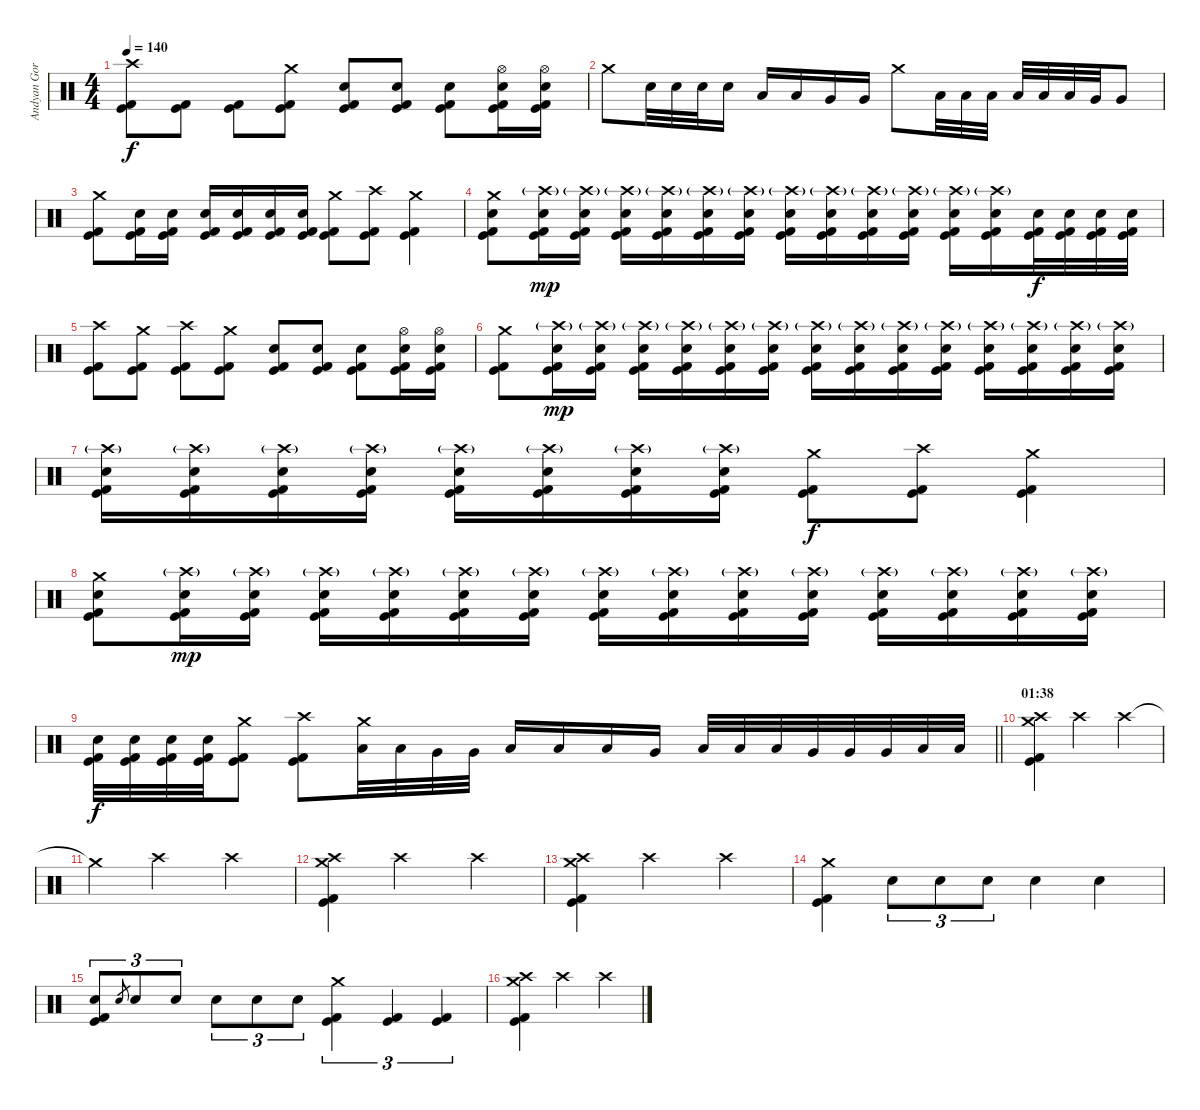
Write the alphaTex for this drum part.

\track ("Andyan Gorust" "Andyan Gor") {instrument percussion}
\staff {score}
\articulation defaults
\ts (4 4)
\tempo 140
\clef neutral
\ks c
("Crash high (hit)" "Kick (hit)" "Kick (hit) 2").8{dy f} ("Kick (hit)" "Kick (hit) 2").8 ("Kick (hit)" "Kick (hit) 2").8 ("Crash medium (hit)" "Kick (hit)" "Kick (hit) 2").8 ("Electric Snare (hit)" "Kick (hit)" "Kick (hit) 2").8 ("Electric Snare (hit)" "Kick (hit)" "Kick (hit) 2").8 ("Electric Snare (hit)" "Kick (hit)" "Kick (hit) 2").8 ("Hi-Hat (open)" "Electric Snare (hit)" "Kick (hit)" "Kick (hit) 2").16 ("Hi-Hat (open)" "Electric Snare (hit)" "Kick (hit)" "Kick (hit) 2").16 |
"Crash medium (hit)".8 "Electric Snare (hit)".32 "Electric Snare (hit)".32 "Electric Snare (hit)".32 "Electric Snare (hit)".16 "Low Tom (hit)".16 "Low Tom (hit)".16 "Very Low Tom (hit)".16 "Very Low Tom (hit)".16 "Crash medium (hit)".8 "Low Tom (hit)".32 "Low Tom (hit)".32 "Low Tom (hit)".32 "Low Floor Tom (hit)".32 "Low Floor Tom (hit)".32 "Low Floor Tom (hit)".32 "Very Low Tom (hit)".32 "Very Low Tom (hit)".8 |
("Crash medium (hit)" "Kick (hit)" "Kick (hit) 2").8 ("Electric Snare (hit)" "Kick (hit)" "Kick (hit) 2").16 ("Electric Snare (hit)" "Kick (hit)" "Kick (hit) 2").16 ("Electric Snare (hit)" "Kick (hit)" "Kick (hit) 2").16 ("Electric Snare (hit)" "Kick (hit)" "Kick (hit) 2").16 ("Electric Snare (hit)" "Kick (hit)" "Kick (hit) 2").16 ("Electric Snare (hit)" "Kick (hit)" "Kick (hit) 2").16 ("Crash medium (hit)" "Kick (hit)" "Kick (hit) 2").8 ("Crash high (hit)" "Kick (hit)" "Kick (hit) 2").8 ("Crash medium (hit)" "Kick (hit)" "Kick (hit) 2").4 |
("Crash medium (hit)" "Electric Snare (hit)" "Kick (hit)" "Kick (hit) 2").8 ("Crash high (hit)"{g} "Electric Snare (hit)" "Kick (hit)" "Kick (hit) 2").16{dy mp} ("Crash high (hit)"{g} "Electric Snare (hit)" "Kick (hit)" "Kick (hit) 2").16 ("Crash high (hit)"{g} "Electric Snare (hit)" "Kick (hit)" "Kick (hit) 2").16 ("Crash high (hit)"{g} "Electric Snare (hit)" "Kick (hit)" "Kick (hit) 2").16 ("Crash high (hit)"{g} "Electric Snare (hit)" "Kick (hit)" "Kick (hit) 2").16 ("Crash high (hit)"{g} "Electric Snare (hit)" "Kick (hit)" "Kick (hit) 2").16 ("Crash high (hit)"{g} "Electric Snare (hit)" "Kick (hit)" "Kick (hit) 2").16 ("Crash high (hit)"{g} "Electric Snare (hit)" "Kick (hit)" "Kick (hit) 2").16 ("Crash high (hit)"{g} "Electric Snare (hit)" "Kick (hit)" "Kick (hit) 2").16 ("Crash high (hit)"{g} "Electric Snare (hit)" "Kick (hit)" "Kick (hit) 2").16 ("Crash high (hit)"{g} "Electric Snare (hit)" "Kick (hit)" "Kick (hit) 2").16 ("Crash high (hit)"{g} "Electric Snare (hit)" "Kick (hit)" "Kick (hit) 2").16 ("Electric Snare (hit)" "Kick (hit)" "Kick (hit) 2").32{dy f} ("Electric Snare (hit)" "Kick (hit)" "Kick (hit) 2").32 ("Electric Snare (hit)" "Kick (hit)" "Kick (hit) 2").32 ("Electric Snare (hit)" "Kick (hit)" "Kick (hit) 2").32 |
("Crash high (hit)" "Kick (hit)" "Kick (hit) 2").8 ("Crash medium (hit)" "Kick (hit)" "Kick (hit) 2").8 ("Crash high (hit)" "Kick (hit)" "Kick (hit) 2").8 ("Crash medium (hit)" "Kick (hit)" "Kick (hit) 2").8 ("Electric Snare (hit)" "Kick (hit)" "Kick (hit) 2").8 ("Electric Snare (hit)" "Kick (hit)" "Kick (hit) 2").8 ("Electric Snare (hit)" "Kick (hit)" "Kick (hit) 2").8 ("Hi-Hat (open)" "Electric Snare (hit)" "Kick (hit)" "Kick (hit) 2").16 ("Hi-Hat (open)" "Electric Snare (hit)" "Kick (hit)" "Kick (hit) 2").16 |
("Crash medium (hit)" "Kick (hit)" "Kick (hit) 2").8 ("Crash high (hit)"{g} "Electric Snare (hit)" "Kick (hit)" "Kick (hit) 2").16{dy mp} ("Crash high (hit)"{g} "Electric Snare (hit)" "Kick (hit)" "Kick (hit) 2").16 ("Crash high (hit)"{g} "Electric Snare (hit)" "Kick (hit)" "Kick (hit) 2").16 ("Crash high (hit)"{g} "Electric Snare (hit)" "Kick (hit)" "Kick (hit) 2").16 ("Crash high (hit)"{g} "Electric Snare (hit)" "Kick (hit)" "Kick (hit) 2").16 ("Crash high (hit)"{g} "Electric Snare (hit)" "Kick (hit)" "Kick (hit) 2").16 ("Crash high (hit)"{g} "Electric Snare (hit)" "Kick (hit)" "Kick (hit) 2").16 ("Crash high (hit)"{g} "Electric Snare (hit)" "Kick (hit)" "Kick (hit) 2").16 ("Crash high (hit)"{g} "Electric Snare (hit)" "Kick (hit)" "Kick (hit) 2").16 ("Crash high (hit)"{g} "Electric Snare (hit)" "Kick (hit)" "Kick (hit) 2").16 ("Crash high (hit)"{g} "Electric Snare (hit)" "Kick (hit)" "Kick (hit) 2").16 ("Crash high (hit)"{g} "Electric Snare (hit)" "Kick (hit)" "Kick (hit) 2").16 ("Crash high (hit)"{g} "Electric Snare (hit)" "Kick (hit)" "Kick (hit) 2").16 ("Crash high (hit)"{g} "Electric Snare (hit)" "Kick (hit)" "Kick (hit) 2").16 |
("Crash high (hit)"{g} "Electric Snare (hit)" "Kick (hit)" "Kick (hit) 2").16 ("Crash high (hit)"{g} "Electric Snare (hit)" "Kick (hit)" "Kick (hit) 2").16 ("Crash high (hit)"{g} "Electric Snare (hit)" "Kick (hit)" "Kick (hit) 2").16 ("Crash high (hit)"{g} "Electric Snare (hit)" "Kick (hit)" "Kick (hit) 2").16 ("Crash high (hit)"{g} "Electric Snare (hit)" "Kick (hit)" "Kick (hit) 2").16 ("Crash high (hit)"{g} "Electric Snare (hit)" "Kick (hit)" "Kick (hit) 2").16 ("Crash high (hit)"{g} "Electric Snare (hit)" "Kick (hit)" "Kick (hit) 2").16 ("Crash high (hit)"{g} "Electric Snare (hit)" "Kick (hit)" "Kick (hit) 2").16 ("Crash medium (hit)" "Kick (hit)" "Kick (hit) 2").8{dy f} ("Crash high (hit)" "Kick (hit)" "Kick (hit) 2").8 ("Crash medium (hit)" "Kick (hit)" "Kick (hit) 2").4 |
("Crash medium (hit)" "Electric Snare (hit)" "Kick (hit)" "Kick (hit) 2").8 ("Crash high (hit)"{g} "Electric Snare (hit)" "Kick (hit)" "Kick (hit) 2").16{dy mp} ("Crash high (hit)"{g} "Electric Snare (hit)" "Kick (hit)" "Kick (hit) 2").16 ("Crash high (hit)"{g} "Electric Snare (hit)" "Kick (hit)" "Kick (hit) 2").16 ("Crash high (hit)"{g} "Electric Snare (hit)" "Kick (hit)" "Kick (hit) 2").16 ("Crash high (hit)"{g} "Electric Snare (hit)" "Kick (hit)" "Kick (hit) 2").16 ("Crash high (hit)"{g} "Electric Snare (hit)" "Kick (hit)" "Kick (hit) 2").16 ("Crash high (hit)"{g} "Electric Snare (hit)" "Kick (hit)" "Kick (hit) 2").16 ("Crash high (hit)"{g} "Electric Snare (hit)" "Kick (hit)" "Kick (hit) 2").16 ("Crash high (hit)"{g} "Electric Snare (hit)" "Kick (hit)" "Kick (hit) 2").16 ("Crash high (hit)"{g} "Electric Snare (hit)" "Kick (hit)" "Kick (hit) 2").16 ("Crash high (hit)"{g} "Electric Snare (hit)" "Kick (hit)" "Kick (hit) 2").16 ("Crash high (hit)"{g} "Electric Snare (hit)" "Kick (hit)" "Kick (hit) 2").16 ("Crash high (hit)"{g} "Electric Snare (hit)" "Kick (hit)" "Kick (hit) 2").16 ("Crash high (hit)"{g} "Electric Snare (hit)" "Kick (hit)" "Kick (hit) 2").16 |
\barLineRight lightlight
("Electric Snare (hit)" "Kick (hit)" "Kick (hit) 2").32{dy f} ("Electric Snare (hit)" "Kick (hit)" "Kick (hit) 2").32 ("Electric Snare (hit)" "Kick (hit)" "Kick (hit) 2").32 ("Electric Snare (hit)" "Kick (hit)" "Kick (hit) 2").32 ("Crash medium (hit)" "Kick (hit)" "Kick (hit) 2").8 ("Crash high (hit)" "Kick (hit)" "Kick (hit) 2").8 ("Crash medium (hit)" "Low Tom (hit)").32 "Low Tom (hit)".32 "Very Low Tom (hit)".32 "Very Low Tom (hit)".32 "Low Floor Tom (hit)".16 "Low Tom (hit)".16 "Low Tom (hit)".16 "Very Low Tom (hit)".16 "Low Tom (hit)".32 "Low Tom (hit)".32 "Low Tom (hit)".32 "Very Low Tom (hit)".32 "Very Low Tom (hit)".32 "Very Low Tom (hit)".32 "Low Floor Tom (hit)".32 "Low Floor Tom (hit)".32 |
\section ("" "01:38")
("Crash medium (hit)" "Crash high (hit)" "Kick (hit)" "Kick (hit) 2").4 "Crash high (hit)".2 "Crash high (hit)".4 |
"Crash medium (hit)"{t}.4 "Crash high (hit)".2 "Crash high (hit)".4 |
("Crash medium (hit)" "Crash high (hit)" "Kick (hit)" "Kick (hit) 2").4 "Crash high (hit)".2 "Crash high (hit)".4 |
("Crash medium (hit)" "Crash high (hit)" "Kick (hit)" "Kick (hit) 2").4 "Crash high (hit)".2 "Crash high (hit)".4 |
("Crash medium (hit)" "Kick (hit)" "Kick (hit) 2").4 "Electric Snare (hit)".8{tu (3 2)} "Electric Snare (hit)".8{tu (3 2)} "Electric Snare (hit)".8{tu (3 2)} "Electric Snare (hit)".4 "Electric Snare (hit)".4 |
("Electric Snare (hit)" "Kick (hit)" "Kick (hit) 2").8{tu (3 2)} "Electric Snare (hit)".8{gr} "Electric Snare (hit)".8{tu (3 2)} "Electric Snare (hit)".8{tu (3 2)} "Electric Snare (hit)".8{tu (3 2)} "Electric Snare (hit)".8{tu (3 2)} "Electric Snare (hit)".8{tu (3 2)} ("Crash medium (hit)" "Kick (hit)" "Kick (hit) 2").4{tu (3 2)} ("Kick (hit)" "Kick (hit) 2").4{tu (3 2)} ("Kick (hit)" "Kick (hit) 2").4{tu (3 2)} |
("Crash medium (hit)" "Crash high (hit)" "Kick (hit)" "Kick (hit) 2").4 "Crash high (hit)".2 "Crash high (hit)".4
